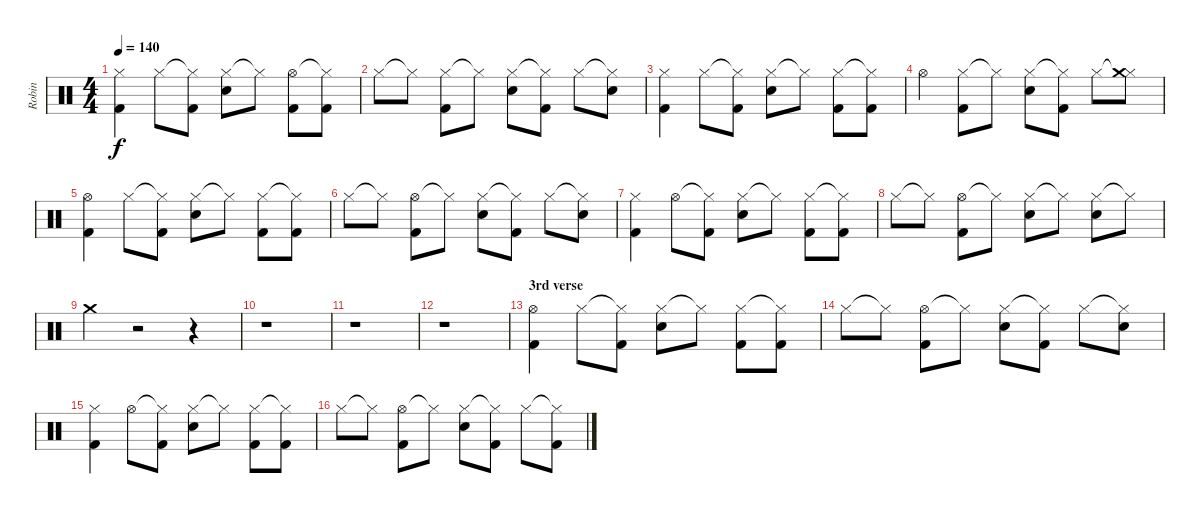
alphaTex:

\track ("Robin" "Robin") {instrument percussion}
\staff {score}
\articulation defaults
\ts (4 4)
\tempo 140
\clef neutral
\ks c
("Hi-Hat (closed)" "Kick (hit) 2").4{dy f} "Hi-Hat (closed)".8 ("Hi-Hat (closed)"{t} "Kick (hit) 2").8 ("Hi-Hat (closed)" "Snare (hit) 2").8 "Hi-Hat (closed)"{t}.8 ("Hi-Hat (open)" "Kick (hit) 2").8 ("Hi-Hat (closed)"{t} "Kick (hit) 2").8 |
"Hi-Hat (closed)".8 "Hi-Hat (closed)"{t}.8 ("Hi-Hat (closed)" "Kick (hit) 2").8 "Hi-Hat (closed)"{t}.8 ("Hi-Hat (closed)" "Snare (hit) 2").8 ("Hi-Hat (closed)"{t} "Kick (hit) 2").8 "Hi-Hat (closed)".8 ("Hi-Hat (closed)"{t} "Snare (hit) 2").8 |
("Hi-Hat (closed)" "Kick (hit) 2").4 "Hi-Hat (closed)".8 ("Hi-Hat (closed)"{t} "Kick (hit) 2").8 ("Hi-Hat (closed)" "Snare (hit) 2").8 "Hi-Hat (closed)"{t}.8 ("Hi-Hat (closed)" "Kick (hit) 2").8 ("Hi-Hat (closed)"{t} "Kick (hit) 2").8 |
"Hi-Hat (open)".4 ("Hi-Hat (closed)" "Kick (hit) 2").8 "Hi-Hat (closed)"{t}.8 ("Hi-Hat (closed)" "Snare (hit) 2").8 ("Hi-Hat (closed)"{t} "Kick (hit) 2").8 "Hi-Hat (closed)".8 ("Hi-Hat (closed)"{t} "Crash medium (hit)").8 |
("Hi-Hat (open)" "Kick (hit) 2").4 "Hi-Hat (closed)".8 ("Hi-Hat (closed)"{t} "Kick (hit) 2").8 ("Hi-Hat (closed)" "Snare (hit) 2").8 "Hi-Hat (closed)"{t}.8 ("Hi-Hat (closed)" "Kick (hit) 2").8 ("Hi-Hat (closed)"{t} "Kick (hit) 2").8 |
"Hi-Hat (closed)".8 "Hi-Hat (closed)"{t}.8 ("Hi-Hat (open)" "Kick (hit) 2").8 "Hi-Hat (closed)"{t}.8 ("Hi-Hat (closed)" "Snare (hit) 2").8 ("Hi-Hat (closed)"{t} "Kick (hit) 2").8 "Hi-Hat (closed)".8 ("Hi-Hat (closed)"{t} "Snare (hit) 2").8 |
("Hi-Hat (closed)" "Kick (hit) 2").4 "Hi-Hat (open)".8 ("Hi-Hat (closed)"{t} "Kick (hit) 2").8 ("Hi-Hat (closed)" "Snare (hit) 2").8 "Hi-Hat (closed)"{t}.8 ("Hi-Hat (closed)" "Kick (hit) 2").8 ("Hi-Hat (closed)"{t} "Kick (hit) 2").8 |
"Hi-Hat (closed)".8 "Hi-Hat (closed)"{t}.8 ("Hi-Hat (open)" "Kick (hit) 2").8 "Hi-Hat (closed)"{t}.8 ("Hi-Hat (closed)" "Snare (hit) 2").8 "Hi-Hat (closed)"{t}.8 ("Hi-Hat (closed)" "Snare (hit) 2").8 "Hi-Hat (closed)"{t}.8 |
"Crash medium (hit)".4 r.2 r.4 |
r.1 |
r.1 |
r.1 |
\section ("" "3rd verse")
("Hi-Hat (open)" "Kick (hit) 2").4 "Hi-Hat (closed)".8 ("Hi-Hat (closed)"{t} "Kick (hit) 2").8 ("Hi-Hat (closed)" "Snare (hit) 2").8 "Hi-Hat (closed)"{t}.8 ("Hi-Hat (closed)" "Kick (hit) 2").8 ("Hi-Hat (closed)"{t} "Kick (hit) 2").8 |
"Hi-Hat (closed)".8 "Hi-Hat (closed)"{t}.8 ("Hi-Hat (open)" "Kick (hit) 2").8 "Hi-Hat (closed)"{t}.8 ("Hi-Hat (closed)" "Snare (hit) 2").8 ("Hi-Hat (closed)"{t} "Kick (hit) 2").8 "Hi-Hat (closed)".8 ("Hi-Hat (closed)"{t} "Snare (hit) 2").8 |
("Hi-Hat (closed)" "Kick (hit) 2").4 "Hi-Hat (open)".8 ("Hi-Hat (closed)"{t} "Kick (hit) 2").8 ("Hi-Hat (closed)" "Snare (hit) 2").8 "Hi-Hat (closed)"{t}.8 ("Hi-Hat (closed)" "Kick (hit) 2").8 ("Hi-Hat (closed)"{t} "Kick (hit) 2").8 |
"Hi-Hat (closed)".8 "Hi-Hat (closed)"{t}.8 ("Hi-Hat (open)" "Kick (hit) 2").8 "Hi-Hat (closed)"{t}.8 ("Hi-Hat (closed)" "Snare (hit) 2").8 ("Hi-Hat (closed)"{t} "Kick (hit) 2").8 "Hi-Hat (closed)".8 ("Hi-Hat (closed)"{t} "Kick (hit) 2").8
